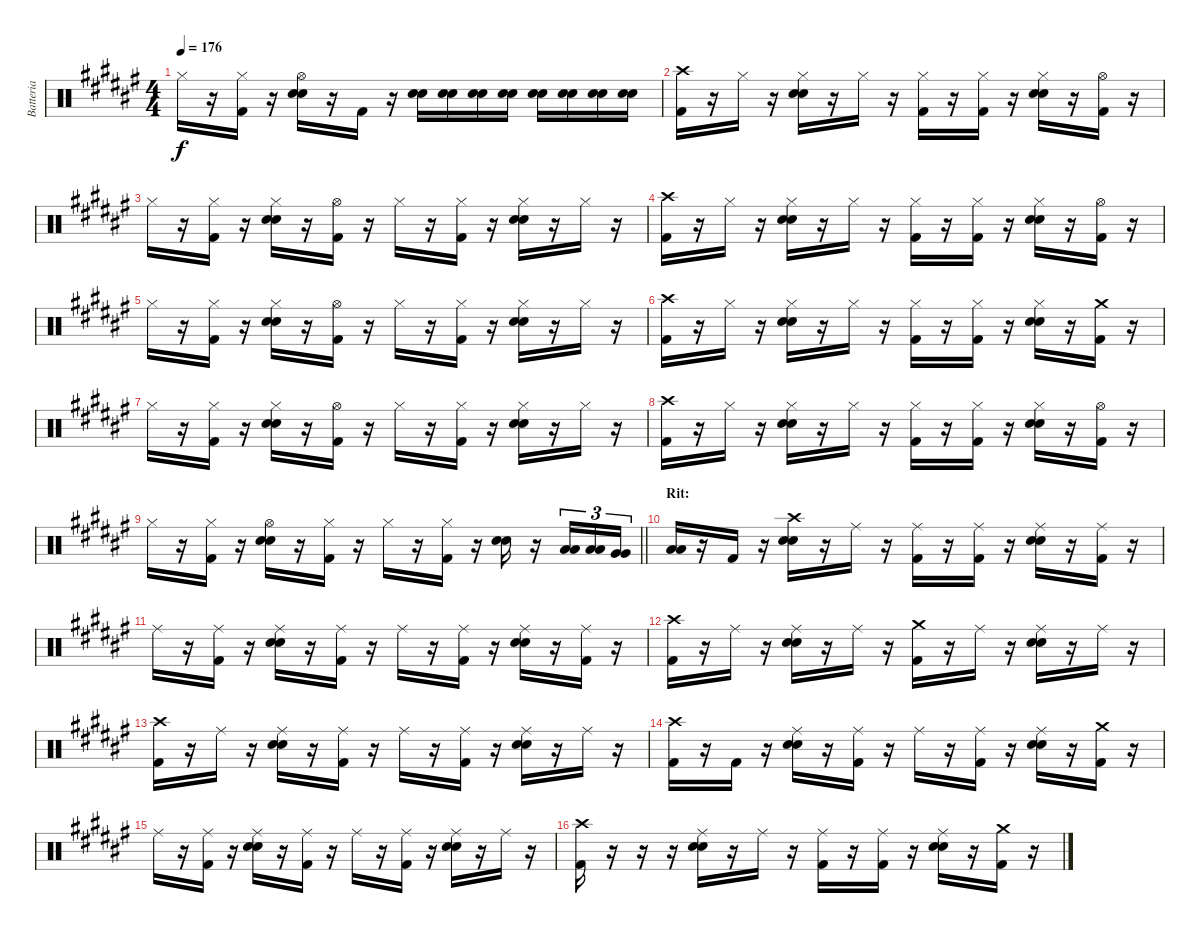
\track ("Batteria" "Batteria") {instrument percussion}
\staff {score}
\articulation defaults
\ts (4 4)
\tempo 176
\clef neutral
\ks f# "Hi-Hat (closed)".16{dy f}
r.16 ("Kick (hit) 2" "Hi-Hat (closed)").16 r.16 ("Snare (hit) 2" "Snare (hit) 2" "Hi-Hat (open)").16 r.16 "Kick (hit) 2".16 r.16 ("Snare (hit) 2" "Snare (hit) 2").16 ("Snare (hit) 2" "Snare (hit) 2").16 ("Snare (hit) 2" "Snare (hit) 2").16 ("Snare (hit) 2" "Snare (hit) 2").16 ("Snare (hit) 2" "Snare (hit) 2").16 ("Snare (hit) 2" "Snare (hit) 2").16 ("Snare (hit) 2" "Snare (hit) 2").16 ("Snare (hit) 2" "Snare (hit) 2").16 |
("Kick (hit) 2" "Crash high (hit)").16 r.16 "Hi-Hat (closed)".16 r.16 ("Snare (hit) 2" "Snare (hit) 2" "Hi-Hat (closed)").16 r.16 "Hi-Hat (closed)".16 r.16 ("Kick (hit) 2" "Hi-Hat (closed)").16 r.16 ("Kick (hit) 2" "Hi-Hat (closed)").16 r.16 ("Snare (hit) 2" "Snare (hit) 2" "Hi-Hat (closed)").16 r.16 ("Kick (hit) 2" "Hi-Hat (open)").16 r.16 |
"Hi-Hat (closed)".16 r.16 ("Kick (hit) 2" "Hi-Hat (closed)").16 r.16 ("Snare (hit) 2" "Snare (hit) 2" "Hi-Hat (closed)").16 r.16 ("Kick (hit) 2" "Hi-Hat (open)").16 r.16 "Hi-Hat (closed)".16 r.16 ("Kick (hit) 2" "Hi-Hat (closed)").16 r.16 ("Snare (hit) 2" "Snare (hit) 2" "Hi-Hat (closed)").16 r.16 "Hi-Hat (closed)".16 r.16 |
("Kick (hit) 2" "Crash high (hit)").16 r.16 "Hi-Hat (closed)".16 r.16 ("Snare (hit) 2" "Snare (hit) 2" "Hi-Hat (closed)").16 r.16 "Hi-Hat (closed)".16 r.16 ("Kick (hit) 2" "Hi-Hat (closed)").16 r.16 ("Kick (hit) 2" "Hi-Hat (closed)").16 r.16 ("Snare (hit) 2" "Snare (hit) 2" "Hi-Hat (closed)").16 r.16 ("Kick (hit) 2" "Hi-Hat (open)").16 r.16 |
"Hi-Hat (closed)".16 r.16 ("Kick (hit) 2" "Hi-Hat (closed)").16 r.16 ("Snare (hit) 2" "Snare (hit) 2" "Hi-Hat (closed)").16 r.16 ("Kick (hit) 2" "Hi-Hat (open)").16 r.16 "Hi-Hat (closed)".16 r.16 ("Kick (hit) 2" "Hi-Hat (closed)").16 r.16 ("Snare (hit) 2" "Snare (hit) 2" "Hi-Hat (closed)").16 r.16 "Hi-Hat (closed)".16 r.16 |
("Kick (hit) 2" "Crash high (hit)").16 r.16 "Hi-Hat (closed)".16 r.16 ("Snare (hit) 2" "Snare (hit) 2" "Hi-Hat (closed)").16 r.16 "Hi-Hat (closed)".16 r.16 ("Kick (hit) 2" "Hi-Hat (closed)").16 r.16 ("Kick (hit) 2" "Hi-Hat (closed)").16 r.16 ("Snare (hit) 2" "Snare (hit) 2" "Hi-Hat (closed)").16 r.16 ("Kick (hit) 2" "Crash medium (hit)").16 r.16 |
"Hi-Hat (closed)".16 r.16 ("Kick (hit) 2" "Hi-Hat (closed)").16 r.16 ("Snare (hit) 2" "Snare (hit) 2" "Hi-Hat (closed)").16 r.16 ("Kick (hit) 2" "Hi-Hat (open)").16 r.16 "Hi-Hat (closed)".16 r.16 ("Kick (hit) 2" "Hi-Hat (closed)").16 r.16 ("Snare (hit) 2" "Snare (hit) 2" "Hi-Hat (closed)").16 r.16 "Hi-Hat (closed)".16 r.16 |
("Kick (hit) 2" "Crash high (hit)").16 r.16 "Hi-Hat (closed)".16 r.16 ("Snare (hit) 2" "Snare (hit) 2" "Hi-Hat (closed)").16 r.16 "Hi-Hat (closed)".16 r.16 ("Kick (hit) 2" "Hi-Hat (closed)").16 r.16 ("Kick (hit) 2" "Hi-Hat (closed)").16 r.16 ("Snare (hit) 2" "Snare (hit) 2" "Hi-Hat (closed)").16 r.16 ("Kick (hit) 2" "Hi-Hat (open)").16 r.16 |
\barLineRight lightlight "Hi-Hat (closed)".16
r.16 ("Kick (hit) 2" "Hi-Hat (closed)").16 r.16 ("Snare (hit) 2" "Snare (hit) 2" "Hi-Hat (open)").16 r.16 ("Kick (hit) 2" "Hi-Hat (closed)").16 r.16 "Hi-Hat (closed)".16 r.16 ("Kick (hit) 2" "Hi-Hat (closed)").16 r.16 ("Snare (hit) 2" "Snare (hit) 2").16 r.16 ("Low Tom (hit)" "Low Tom (hit)").16{tu (3 2)} ("Low Tom (hit)" "Low Tom (hit)").16{tu (3 2)} ("Very Low Tom (hit)" "Very Low Tom (hit)").16{tu (3 2)} |
\section ("" "Rit:")
("Low Floor Tom (hit)" "Low Floor Tom (hit)").16 r.16 "Kick (hit) 2".16 r.16 ("Snare (hit) 2" "Snare (hit) 2" "Crash high (hit)").16 r.16 "Ride (middle)".16 r.16 ("Kick (hit) 2" "Ride (middle)").16 r.16 ("Kick (hit) 2" "Ride (middle)").16 r.16 ("Snare (hit) 2" "Snare (hit) 2" "Ride (middle)").16 r.16 ("Kick (hit) 2" "Ride (middle)").16 r.16 |
"Ride (middle)".16 r.16 ("Kick (hit) 2" "Ride (middle)").16 r.16 ("Snare (hit) 2" "Snare (hit) 2" "Ride (middle)").16 r.16 ("Kick (hit) 2" "Ride (middle)").16 r.16 "Ride (middle)".16 r.16 ("Kick (hit) 2" "Ride (middle)").16 r.16 ("Snare (hit) 2" "Snare (hit) 2" "Ride (middle)").16 r.16 ("Kick (hit) 2" "Ride (middle)").16 r.16 |
("Kick (hit) 2" "Crash high (hit)").16 r.16 "Ride (middle)".16 r.16 ("Snare (hit) 2" "Snare (hit) 2" "Ride (middle)").16 r.16 "Ride (middle)".16 r.16 ("Kick (hit) 2" "Crash medium (hit)").16 r.16 "Ride (middle)".16 r.16 ("Snare (hit) 2" "Snare (hit) 2" "Ride (middle)").16 r.16 "Ride (middle)".16 r.16 |
("Kick (hit) 2" "Crash high (hit)").16 r.16 "Ride (middle)".16 r.16 ("Snare (hit) 2" "Snare (hit) 2" "Ride (middle)").16 r.16 ("Kick (hit) 2" "Ride (middle)").16 r.16 "Ride (middle)".16 r.16 ("Kick (hit) 2" "Ride (middle)").16 r.16 ("Snare (hit) 2" "Snare (hit) 2" "Ride (middle)").16 r.16 "Ride (middle)".16 r.16 |
("Kick (hit) 2" "Crash high (hit)").16 r.16 "Kick (hit) 2".16 r.16 ("Snare (hit) 2" "Snare (hit) 2" "Ride (middle)").16 r.16 ("Kick (hit) 2" "Ride (middle)").16 r.16 "Ride (middle)".16 r.16 ("Kick (hit) 2" "Ride (middle)").16 r.16 ("Snare (hit) 2" "Snare (hit) 2" "Ride (middle)").16 r.16 ("Kick (hit) 2" "Crash medium (hit)").16 r.16 |
"Ride (middle)".16 r.16 ("Kick (hit) 2" "Ride (middle)").16 r.16 ("Snare (hit) 2" "Snare (hit) 2" "Ride (middle)").16 r.16 ("Kick (hit) 2" "Ride (middle)").16 r.16 "Ride (middle)".16 r.16 ("Kick (hit) 2" "Ride (middle)").16 r.16 ("Snare (hit) 2" "Snare (hit) 2" "Ride (middle)").16 r.16 "Ride (middle)".16 r.16 |
("Kick (hit) 2" "Crash high (hit)").16 r.16 r.16 r.16 ("Snare (hit) 2" "Snare (hit) 2" "Ride (middle)").16 r.16 "Ride (middle)".16 r.16 ("Kick (hit) 2" "Ride (middle)").16 r.16 ("Kick (hit) 2" "Ride (middle)").16 r.16 ("Snare (hit) 2" "Snare (hit) 2" "Ride (middle)").16 r.16 ("Kick (hit) 2" "Crash medium (hit)").16 r.16
